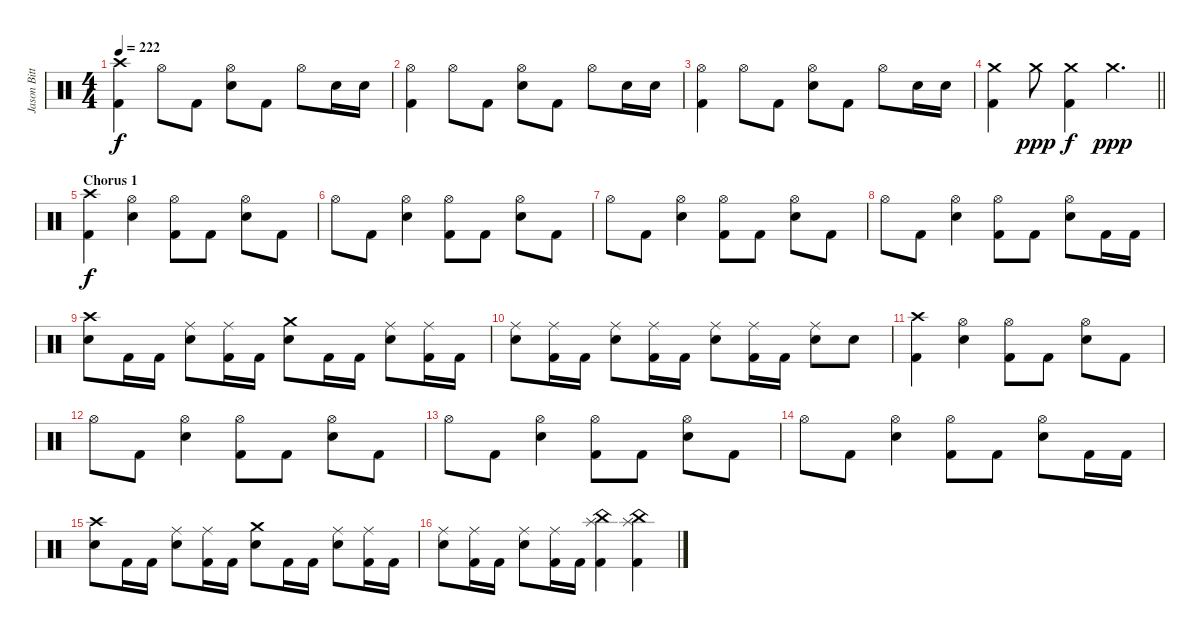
\track ("Jason Bittner" "Jason Bitt") {instrument percussion}
\staff {score}
\articulation defaults
\ts (4 4)
\tempo 222
\clef neutral
\ks c
("Crash high (hit)" "Kick (hit) 2").4{dy f} "Hi-Hat (open)".8 "Kick (hit) 2".8 ("Hi-Hat (open)" "Electric Snare (hit)").8 "Kick (hit) 2".8 "Hi-Hat (open)".8 "Electric Snare (hit)".16 "Electric Snare (hit)".16 |
("Hi-Hat (open)" "Kick (hit) 2").4 "Hi-Hat (open)".8 "Kick (hit) 2".8 ("Hi-Hat (open)" "Electric Snare (hit)").8 "Kick (hit) 2".8 "Hi-Hat (open)".8 "Electric Snare (hit)".16 "Electric Snare (hit)".16 |
("Hi-Hat (open)" "Kick (hit) 2").4 "Hi-Hat (open)".8 "Kick (hit) 2".8 ("Hi-Hat (open)" "Electric Snare (hit)").8 "Kick (hit) 2".8 "Hi-Hat (open)".8 "Electric Snare (hit)".16 "Electric Snare (hit)".16 |
\barLineRight lightlight
("Crash medium (hit)" "Kick (hit) 2").4 "Crash medium (hit)".8{dy ppp} ("Crash medium (hit)" "Kick (hit) 2").4{dy f} "Crash medium (hit)".4{d dy ppp} |
\section ("" "Chorus 1")
("Crash high (hit)" "Kick (hit) 2").4{dy f} ("Hi-Hat (open)" "Electric Snare (hit)").4 ("Hi-Hat (open)" "Kick (hit) 2").8 "Kick (hit) 2".8 ("Hi-Hat (open)" "Electric Snare (hit)").8 "Kick (hit) 2".8 |
"Hi-Hat (open)".8 "Kick (hit) 2".8 ("Hi-Hat (open)" "Electric Snare (hit)").4 ("Hi-Hat (open)" "Kick (hit) 2").8 "Kick (hit) 2".8 ("Hi-Hat (open)" "Electric Snare (hit)").8 "Kick (hit) 2".8 |
"Hi-Hat (open)".8 "Kick (hit) 2".8 ("Hi-Hat (open)" "Electric Snare (hit)").4 ("Hi-Hat (open)" "Kick (hit) 2").8 "Kick (hit) 2".8 ("Hi-Hat (open)" "Electric Snare (hit)").8 "Kick (hit) 2".8 |
"Hi-Hat (open)".8 "Kick (hit) 2".8 ("Hi-Hat (open)" "Electric Snare (hit)").4 ("Hi-Hat (open)" "Kick (hit) 2").8 "Kick (hit) 2".8 ("Hi-Hat (open)" "Electric Snare (hit)").8 "Kick (hit) 2".16 "Kick (hit) 2".16 |
("Crash high (hit)" "Electric Snare (hit)").8 "Kick (hit) 2".16 "Kick (hit) 2".16 ("Ride (middle)" "Electric Snare (hit)").8 ("Ride (middle)" "Kick (hit) 2").16 "Kick (hit) 2".16 ("Crash medium (hit)" "Electric Snare (hit)").8 "Kick (hit) 2".16 "Kick (hit) 2".16 ("Ride (middle)" "Electric Snare (hit)").8 ("Ride (middle)" "Kick (hit) 2").16 "Kick (hit) 2".16 |
("Ride (middle)" "Electric Snare (hit)").8 ("Ride (middle)" "Kick (hit) 2").16 "Kick (hit) 2".16 ("Ride (middle)" "Electric Snare (hit)").8 ("Ride (middle)" "Kick (hit) 2").16 "Kick (hit) 2".16 ("Ride (middle)" "Electric Snare (hit)").8 ("Ride (middle)" "Kick (hit) 2").16 "Kick (hit) 2".16 ("Ride (middle)" "Electric Snare (hit)").8 "Electric Snare (hit)".8 |
("Crash high (hit)" "Kick (hit) 2").4 ("Hi-Hat (open)" "Electric Snare (hit)").4 ("Hi-Hat (open)" "Kick (hit) 2").8 "Kick (hit) 2".8 ("Hi-Hat (open)" "Electric Snare (hit)").8 "Kick (hit) 2".8 |
"Hi-Hat (open)".8 "Kick (hit) 2".8 ("Hi-Hat (open)" "Electric Snare (hit)").4 ("Hi-Hat (open)" "Kick (hit) 2").8 "Kick (hit) 2".8 ("Hi-Hat (open)" "Electric Snare (hit)").8 "Kick (hit) 2".8 |
"Hi-Hat (open)".8 "Kick (hit) 2".8 ("Hi-Hat (open)" "Electric Snare (hit)").4 ("Hi-Hat (open)" "Kick (hit) 2").8 "Kick (hit) 2".8 ("Hi-Hat (open)" "Electric Snare (hit)").8 "Kick (hit) 2".8 |
"Hi-Hat (open)".8 "Kick (hit) 2".8 ("Hi-Hat (open)" "Electric Snare (hit)").4 ("Hi-Hat (open)" "Kick (hit) 2").8 "Kick (hit) 2".8 ("Hi-Hat (open)" "Electric Snare (hit)").8 "Kick (hit) 2".16 "Kick (hit) 2".16 |
("Crash high (hit)" "Electric Snare (hit)").8 "Kick (hit) 2".16 "Kick (hit) 2".16 ("Ride (middle)" "Electric Snare (hit)").8 ("Ride (middle)" "Kick (hit) 2").16 "Kick (hit) 2".16 ("Crash medium (hit)" "Electric Snare (hit)").8 "Kick (hit) 2".16 "Kick (hit) 2".16 ("Ride (middle)" "Electric Snare (hit)").8 ("Ride (middle)" "Kick (hit) 2").16 "Kick (hit) 2".16 |
("Ride (middle)" "Electric Snare (hit)").8 ("Ride (middle)" "Kick (hit) 2").16 "Kick (hit) 2".16 ("Ride (middle)" "Electric Snare (hit)").8 ("Ride (middle)" "Kick (hit) 2").16 "Kick (hit) 2".16 ("China (hit)" "Splash (hit)" "Kick (hit) 2").4 ("China (hit)" "Splash (hit)" "Kick (hit) 2").4
